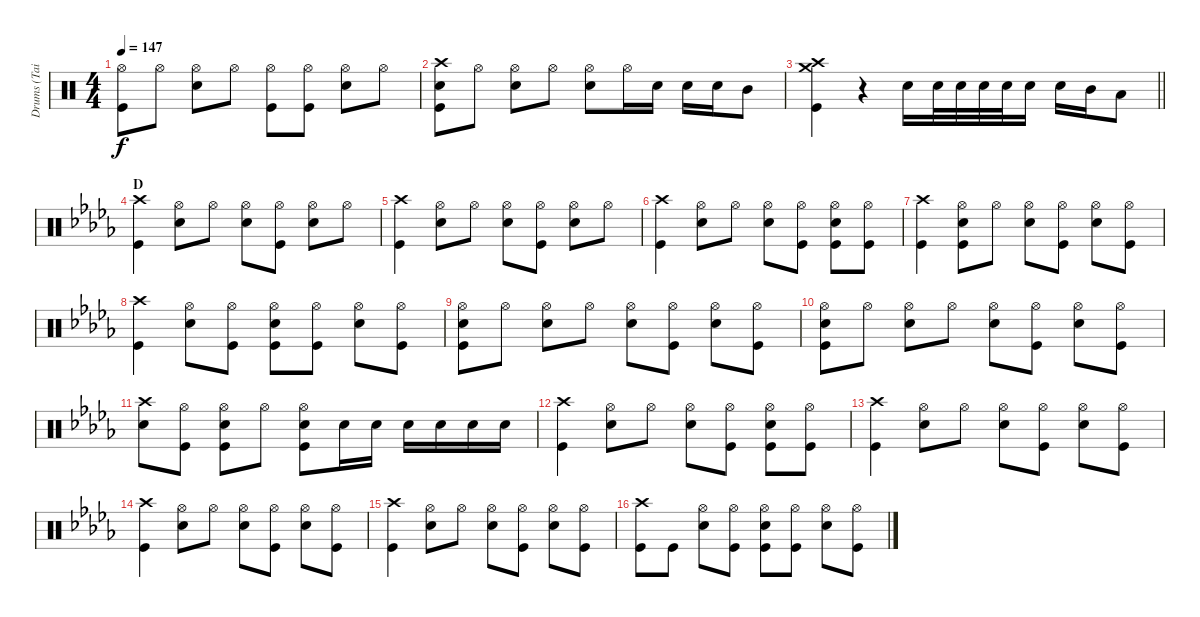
\track ("Drums (Tainaka Ritsu)" "Drums (Tai") {instrument percussion}
\staff {score}
\articulation defaults
\ts (4 4)
\tempo 147
\clef neutral
\ks c
("Hi-Hat (open)" "Kick (hit)").8{dy f} "Hi-Hat (open)".8 ("Hi-Hat (open)" "Snare (hit) 2").8 "Hi-Hat (open)".8 ("Hi-Hat (open)" "Kick (hit)").8 ("Hi-Hat (open)" "Kick (hit)").8 ("Hi-Hat (open)" "Snare (hit) 2").8 "Hi-Hat (open)".8 |
("Crash high (hit)" "Snare (hit) 2" "Kick (hit)").8 "Hi-Hat (open)".8 ("Hi-Hat (open)" "Snare (hit) 2").8 "Hi-Hat (open)".8 ("Hi-Hat (open)" "Snare (hit) 2").8 "Hi-Hat (open)".16 "Snare (hit) 2".16 "Snare (hit) 2".16 "Snare (hit) 2".16 "Mid Tom (hit)".8 |
\barLineRight lightlight
("Crash medium (hit)" "Crash high (hit)" "Kick (hit)").4 r.4 "Snare (hit) 2".16 "Snare (hit) 2".32 "Snare (hit) 2".32 "Snare (hit) 2".32 "Snare (hit) 2".32 "Snare (hit) 2".16 "Snare (hit) 2".16 "Mid Tom (hit)".16 "Low Tom (hit)".8 |
\section ("" "D")
\ks db
("Crash high (hit)" "Kick (hit)").4 ("Hi-Hat (open)" "Snare (hit) 2").8 "Hi-Hat (open)".8 ("Hi-Hat (open)" "Snare (hit) 2").8 ("Hi-Hat (open)" "Kick (hit)").8 ("Hi-Hat (open)" "Snare (hit) 2").8 "Hi-Hat (open)".8 |
("Crash high (hit)" "Kick (hit)").4 ("Hi-Hat (open)" "Snare (hit) 2").8 "Hi-Hat (open)".8 ("Hi-Hat (open)" "Snare (hit) 2").8 ("Hi-Hat (open)" "Kick (hit)").8 ("Hi-Hat (open)" "Snare (hit) 2").8 "Hi-Hat (open)".8 |
("Crash high (hit)" "Kick (hit)").4 ("Hi-Hat (open)" "Snare (hit) 2").8 "Hi-Hat (open)".8 ("Hi-Hat (open)" "Snare (hit) 2").8 ("Hi-Hat (open)" "Kick (hit)").8 ("Hi-Hat (open)" "Snare (hit) 2" "Kick (hit)").8 ("Hi-Hat (open)" "Kick (hit)").8 |
("Crash high (hit)" "Kick (hit)").4 ("Hi-Hat (open)" "Snare (hit) 2" "Kick (hit)").8 "Hi-Hat (open)".8 ("Hi-Hat (open)" "Snare (hit) 2").8 ("Hi-Hat (open)" "Kick (hit)").8 ("Hi-Hat (open)" "Snare (hit) 2").8 ("Hi-Hat (open)" "Kick (hit)").8 |
("Crash high (hit)" "Kick (hit)").4 ("Hi-Hat (open)" "Snare (hit) 2").8 ("Hi-Hat (open)" "Kick (hit)").8 ("Hi-Hat (open)" "Snare (hit) 2" "Kick (hit)").8 ("Hi-Hat (open)" "Kick (hit)").8 ("Hi-Hat (open)" "Snare (hit) 2").8 ("Hi-Hat (open)" "Kick (hit)").8 |
("Hi-Hat (open)" "Snare (hit) 2" "Kick (hit)").8 "Hi-Hat (open)".8 ("Hi-Hat (open)" "Snare (hit) 2").8 "Hi-Hat (open)".8 ("Hi-Hat (open)" "Snare (hit) 2").8 ("Hi-Hat (open)" "Kick (hit)").8 ("Hi-Hat (open)" "Snare (hit) 2").8 ("Hi-Hat (open)" "Kick (hit)").8 |
("Hi-Hat (open)" "Snare (hit) 2" "Kick (hit)").8 "Hi-Hat (open)".8 ("Hi-Hat (open)" "Snare (hit) 2").8 "Hi-Hat (open)".8 ("Hi-Hat (open)" "Snare (hit) 2").8 ("Hi-Hat (open)" "Kick (hit)").8 ("Hi-Hat (open)" "Snare (hit) 2").8 ("Hi-Hat (open)" "Kick (hit)").8 |
("Crash high (hit)" "Snare (hit) 2").8 ("Hi-Hat (open)" "Kick (hit)").8 ("Hi-Hat (open)" "Snare (hit) 2" "Kick (hit)").8 "Hi-Hat (open)".8 ("Hi-Hat (open)" "Snare (hit) 2" "Kick (hit)").8 "Snare (hit) 2".16 "Snare (hit) 2".16 "Snare (hit) 2".16 "Snare (hit) 2".16 "Snare (hit) 2".16 "Snare (hit) 2".16 |
("Crash high (hit)" "Kick (hit)").4 ("Hi-Hat (open)" "Snare (hit) 2").8 "Hi-Hat (open)".8 ("Hi-Hat (open)" "Snare (hit) 2").8 ("Hi-Hat (open)" "Kick (hit)").8 ("Hi-Hat (open)" "Snare (hit) 2" "Kick (hit)").8 ("Hi-Hat (open)" "Kick (hit)").8 |
("Crash high (hit)" "Kick (hit)").4 ("Hi-Hat (open)" "Snare (hit) 2").8 "Hi-Hat (open)".8 ("Hi-Hat (open)" "Snare (hit) 2").8 ("Hi-Hat (open)" "Kick (hit)").8 ("Hi-Hat (open)" "Snare (hit) 2").8 ("Hi-Hat (open)" "Kick (hit)").8 |
("Crash high (hit)" "Kick (hit)").4 ("Hi-Hat (open)" "Snare (hit) 2").8 "Hi-Hat (open)".8 ("Hi-Hat (open)" "Snare (hit) 2").8 ("Hi-Hat (open)" "Kick (hit)").8 ("Hi-Hat (open)" "Snare (hit) 2").8 ("Hi-Hat (open)" "Kick (hit)").8 |
("Crash high (hit)" "Kick (hit)").4 ("Hi-Hat (open)" "Snare (hit) 2").8 "Hi-Hat (open)".8 ("Hi-Hat (open)" "Snare (hit) 2").8 ("Hi-Hat (open)" "Kick (hit)").8 ("Hi-Hat (open)" "Snare (hit) 2").8 ("Hi-Hat (open)" "Kick (hit)").8 |
("Crash high (hit)" "Kick (hit)").8 "Kick (hit)".8 ("Hi-Hat (open)" "Snare (hit) 2").8 ("Hi-Hat (open)" "Kick (hit)").8 ("Hi-Hat (open)" "Snare (hit) 2" "Kick (hit)").8 ("Hi-Hat (open)" "Kick (hit)").8 ("Hi-Hat (open)" "Snare (hit) 2").8 ("Hi-Hat (open)" "Kick (hit)").8
